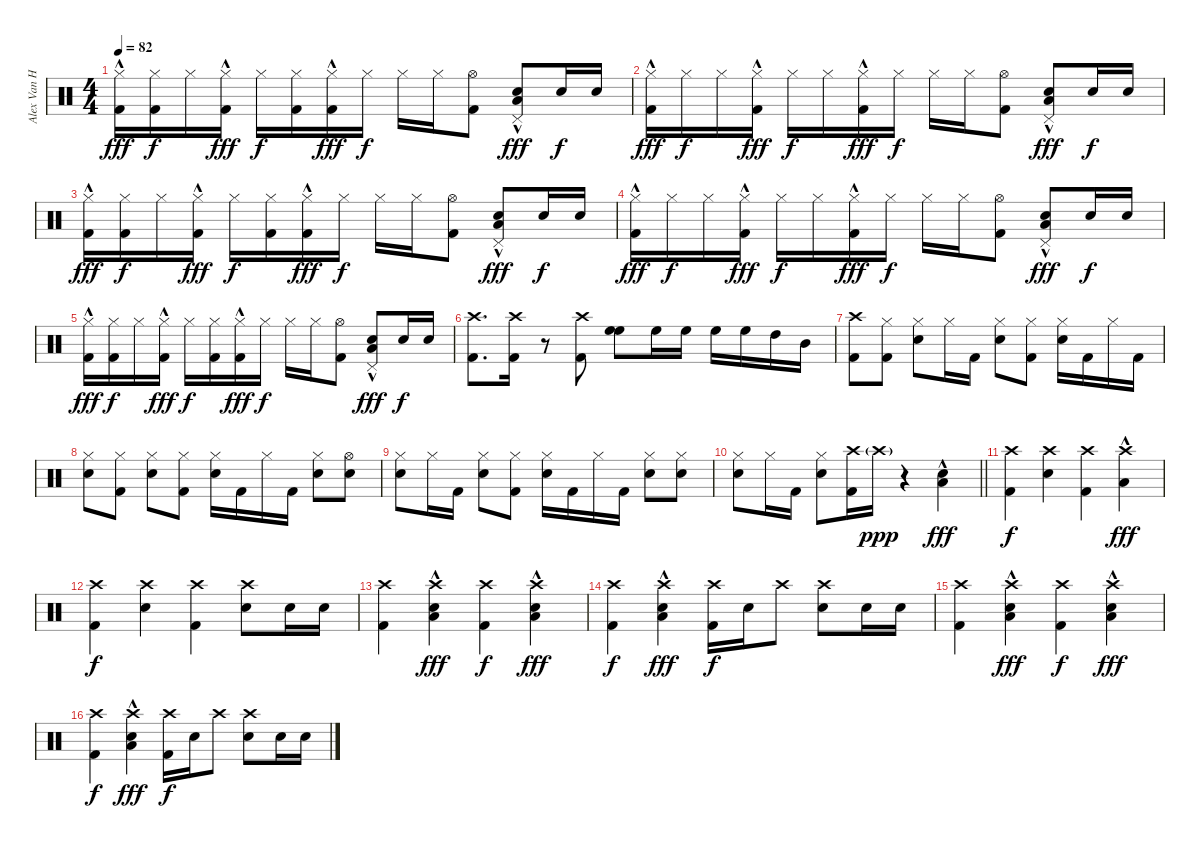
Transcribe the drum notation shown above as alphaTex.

\track ("Alex Van Halen" "Alex Van H") {instrument percussion}
\staff {score}
\articulation defaults
\ts (4 4)
\tempo 82
\clef neutral
\ks c
("Hi-Hat (closed)"{hac} "Kick (hit) 2").16{dy fff} ("Hi-Hat (closed)" "Kick (hit) 2").16{dy f} "Hi-Hat (closed)".16 ("Hi-Hat (closed)"{hac} "Kick (hit) 2").16{dy fff} "Hi-Hat (closed)".16{dy f} ("Hi-Hat (closed)" "Kick (hit) 2").16 ("Hi-Hat (closed)"{hac} "Kick (hit) 2").16{dy fff} "Hi-Hat (closed)".16{dy f} "Hi-Hat (closed)".16 "Hi-Hat (closed)".16 ("Hi-Hat (open)" "Kick (hit) 2").8 ("Pedal Hi-Hat (hit)" "Electric Snare (hit)" "Low Tom (hit)"{hac}).8{dy fff} "Electric Snare (hit)".16{dy f} "Electric Snare (hit)".16 |
("Hi-Hat (closed)"{hac} "Kick (hit) 2").16{dy fff} "Hi-Hat (closed)".16{dy f} "Hi-Hat (closed)".16 ("Hi-Hat (closed)"{hac} "Kick (hit) 2").16{dy fff} "Hi-Hat (closed)".16{dy f} "Hi-Hat (closed)".16 ("Hi-Hat (closed)"{hac} "Kick (hit) 2").16{dy fff} "Hi-Hat (closed)".16{dy f} "Hi-Hat (closed)".16 "Hi-Hat (closed)".16 ("Hi-Hat (open)" "Kick (hit) 2").8 ("Pedal Hi-Hat (hit)" "Electric Snare (hit)" "Low Tom (hit)"{hac}).8{dy fff} "Electric Snare (hit)".16{dy f} "Electric Snare (hit)".16 |
("Hi-Hat (closed)"{hac} "Kick (hit) 2").16{dy fff} ("Hi-Hat (closed)" "Kick (hit) 2").16{dy f} "Hi-Hat (closed)".16 ("Hi-Hat (closed)"{hac} "Kick (hit) 2").16{dy fff} "Hi-Hat (closed)".16{dy f} ("Hi-Hat (closed)" "Kick (hit) 2").16 ("Hi-Hat (closed)"{hac} "Kick (hit) 2").16{dy fff} "Hi-Hat (closed)".16{dy f} "Hi-Hat (closed)".16 "Hi-Hat (closed)".16 ("Hi-Hat (open)" "Kick (hit) 2").8 ("Pedal Hi-Hat (hit)" "Electric Snare (hit)" "Low Tom (hit)"{hac}).8{dy fff} "Electric Snare (hit)".16{dy f} "Electric Snare (hit)".16 |
("Hi-Hat (closed)"{hac} "Kick (hit) 2").16{dy fff} "Hi-Hat (closed)".16{dy f} "Hi-Hat (closed)".16 ("Hi-Hat (closed)"{hac} "Kick (hit) 2").16{dy fff} "Hi-Hat (closed)".16{dy f} "Hi-Hat (closed)".16 ("Hi-Hat (closed)"{hac} "Kick (hit) 2").16{dy fff} "Hi-Hat (closed)".16{dy f} "Hi-Hat (closed)".16 "Hi-Hat (closed)".16 ("Hi-Hat (open)" "Kick (hit) 2").8 ("Pedal Hi-Hat (hit)" "Electric Snare (hit)" "Low Tom (hit)"{hac}).8{dy fff} "Electric Snare (hit)".16{dy f} "Electric Snare (hit)".16 |
("Hi-Hat (closed)"{hac} "Kick (hit) 2").16{dy fff} ("Hi-Hat (closed)" "Kick (hit) 2").16{dy f} "Hi-Hat (closed)".16 ("Hi-Hat (closed)"{hac} "Kick (hit) 2").16{dy fff} "Hi-Hat (closed)".16{dy f} ("Hi-Hat (closed)" "Kick (hit) 2").16 ("Hi-Hat (closed)"{hac} "Kick (hit) 2").16{dy fff} "Hi-Hat (closed)".16{dy f} "Hi-Hat (closed)".16 "Hi-Hat (closed)".16 ("Hi-Hat (open)" "Kick (hit) 2").8 ("Pedal Hi-Hat (hit)" "Electric Snare (hit)" "Low Tom (hit)"{hac}).8{dy fff} "Electric Snare (hit)".16{dy f} "Electric Snare (hit)".16 |
("Crash high (hit)" "Kick (hit) 2").8{d} ("Crash high (hit)" "Kick (hit) 2").16 r.8 ("Crash high (hit)" "Kick (hit) 2").8 ("High Floor Tom (hit)" "High Floor Tom (hit)").8{bd 120} "High Floor Tom (hit)".16 "High Floor Tom (hit)".16 "High Floor Tom (hit)".16 "High Floor Tom (hit)".16 "High Tom (hit)".16 "Mid Tom (hit)".16 |
("Crash high (hit)" "Kick (hit) 2").8 ("Hi-Hat (closed)" "Kick (hit) 2").8 ("Hi-Hat (closed)" "Electric Snare (hit)").8 "Hi-Hat (closed)".16 "Kick (hit) 2".16 ("Hi-Hat (closed)" "Electric Snare (hit)").8 ("Hi-Hat (closed)" "Kick (hit) 2").8 ("Hi-Hat (closed)" "Electric Snare (hit)").16 "Kick (hit) 2".16 "Hi-Hat (closed)".16 "Kick (hit) 2".16 |
("Hi-Hat (closed)" "Electric Snare (hit)").8 ("Hi-Hat (closed)" "Kick (hit) 2").8 ("Hi-Hat (closed)" "Electric Snare (hit)").8 ("Hi-Hat (closed)" "Kick (hit) 2").8 ("Hi-Hat (closed)" "Electric Snare (hit)").16 "Kick (hit) 2".16 "Hi-Hat (closed)".16 "Kick (hit) 2".16 ("Hi-Hat (closed)" "Electric Snare (hit)").8 ("Hi-Hat (open)" "Electric Snare (hit)").8 |
("Hi-Hat (closed)" "Electric Snare (hit)").8 "Hi-Hat (closed)".16 "Kick (hit) 2".16 ("Hi-Hat (closed)" "Electric Snare (hit)").8 ("Hi-Hat (closed)" "Kick (hit) 2").8 ("Hi-Hat (closed)" "Electric Snare (hit)").16 "Kick (hit) 2".16 "Hi-Hat (closed)".16 "Kick (hit) 2".16 ("Hi-Hat (closed)" "Electric Snare (hit)").8 ("Hi-Hat (closed)" "Electric Snare (hit)").8 |
\barLineRight lightlight
("Hi-Hat (closed)" "Electric Snare (hit)").8 "Hi-Hat (closed)".16 "Kick (hit) 2".16 ("Hi-Hat (closed)" "Electric Snare (hit)").8 ("Crash high (hit)" "Kick (hit) 2").16 "Crash high (hit)"{g}.16{dy ppp} r.4 ("Electric Snare (hit)" "Low Tom (hit)"{hac}).4{dy fff} |
("Crash high (hit)" "Kick (hit) 2").4{dy f} ("Crash high (hit)" "Electric Snare (hit)").4 ("Crash high (hit)" "Kick (hit) 2").4 ("Crash high (hit)" "Low Tom (hit)"{hac}).4{dy fff} |
("Crash high (hit)" "Kick (hit) 2").4{dy f} ("Crash high (hit)" "Electric Snare (hit)").4 ("Crash high (hit)" "Kick (hit) 2").4 ("Crash high (hit)" "Electric Snare (hit)").8 "Electric Snare (hit)".16 "Electric Snare (hit)".16 |
("Crash high (hit)" "Kick (hit) 2").4 ("Crash high (hit)" "Low Tom (hit)"{hac} "Electric Snare (hit)").4{dy fff} ("Crash high (hit)" "Kick (hit) 2").4{dy f} ("Crash high (hit)" "Low Tom (hit)"{hac} "Electric Snare (hit)").4{dy fff} |
("Crash high (hit)" "Kick (hit) 2").4{dy f} ("Crash high (hit)" "Low Tom (hit)"{hac} "Electric Snare (hit)").4{dy fff} ("Crash high (hit)" "Kick (hit) 2").16{dy f} "Electric Snare (hit)".16 "Crash high (hit)".8 ("Crash high (hit)" "Electric Snare (hit)").8 "Electric Snare (hit)".16 "Electric Snare (hit)".16 |
("Crash high (hit)" "Kick (hit) 2").4 ("Crash high (hit)" "Low Tom (hit)"{hac} "Electric Snare (hit)").4{dy fff} ("Crash high (hit)" "Kick (hit) 2").4{dy f} ("Crash high (hit)" "Low Tom (hit)"{hac} "Electric Snare (hit)").4{dy fff} |
("Crash high (hit)" "Kick (hit) 2").4{dy f} ("Crash high (hit)" "Low Tom (hit)"{hac} "Electric Snare (hit)").4{dy fff} ("Crash high (hit)" "Kick (hit) 2").16{dy f} "Electric Snare (hit)".16 "Crash high (hit)".8 ("Crash high (hit)" "Electric Snare (hit)").8 "Electric Snare (hit)".16 "Electric Snare (hit)".16
